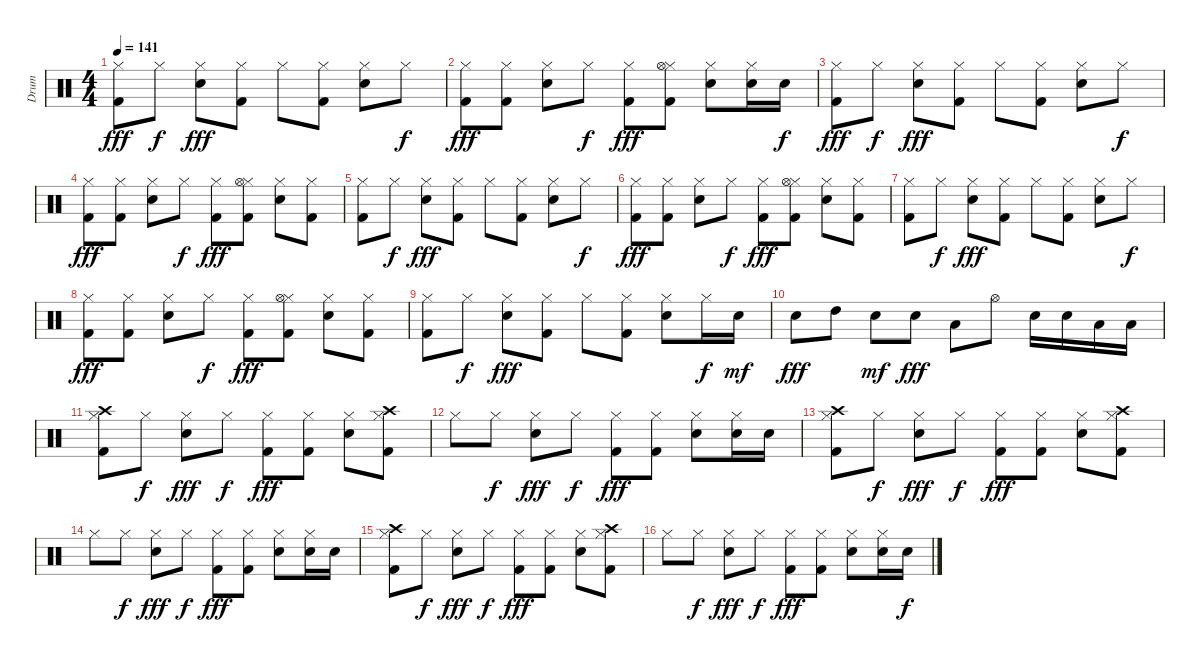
\track ("Drum" "Drum") {instrument percussion}
\staff {score}
\articulation defaults
\ts (4 4)
\tempo 141
\clef neutral
\ks c
("Hi-Hat (closed)" "Kick (hit) 2").8{dy fff} "Hi-Hat (closed)".8{dy f} ("Hi-Hat (closed)" "Snare (hit) 2").8{dy fff} ("Hi-Hat (closed)" "Kick (hit) 2").8 "Hi-Hat (closed)".8 ("Hi-Hat (closed)" "Kick (hit) 2").8 ("Hi-Hat (closed)" "Snare (hit) 2").8 "Hi-Hat (closed)".8{dy f} |
("Hi-Hat (closed)" "Kick (hit) 2").8{dy fff} ("Hi-Hat (closed)" "Kick (hit) 2").8 ("Hi-Hat (closed)" "Snare (hit) 2").8 "Hi-Hat (closed)".8{dy f} ("Hi-Hat (closed)" "Kick (hit) 2").8{dy fff} ("Hi-Hat (closed)" "Kick (hit) 2" "Hi-Hat (open)").8 ("Hi-Hat (closed)" "Snare (hit) 2").8 ("Hi-Hat (closed)" "Snare (hit) 2").16 "Snare (hit) 2".16{dy f} |
("Hi-Hat (closed)" "Kick (hit) 2").8{dy fff} "Hi-Hat (closed)".8{dy f} ("Hi-Hat (closed)" "Snare (hit) 2").8{dy fff} ("Hi-Hat (closed)" "Kick (hit) 2").8 "Hi-Hat (closed)".8 ("Hi-Hat (closed)" "Kick (hit) 2").8 ("Hi-Hat (closed)" "Snare (hit) 2").8 "Hi-Hat (closed)".8{dy f} |
("Hi-Hat (closed)" "Kick (hit) 2").8{dy fff} ("Hi-Hat (closed)" "Kick (hit) 2").8 ("Hi-Hat (closed)" "Snare (hit) 2").8 "Hi-Hat (closed)".8{dy f} ("Hi-Hat (closed)" "Kick (hit) 2").8{dy fff} ("Hi-Hat (closed)" "Kick (hit) 2" "Hi-Hat (open)").8 ("Hi-Hat (closed)" "Snare (hit) 2").8 ("Hi-Hat (closed)" "Kick (hit) 2").8 |
("Hi-Hat (closed)" "Kick (hit) 2").8 "Hi-Hat (closed)".8{dy f} ("Hi-Hat (closed)" "Snare (hit) 2").8{dy fff} ("Hi-Hat (closed)" "Kick (hit) 2").8 "Hi-Hat (closed)".8 ("Hi-Hat (closed)" "Kick (hit) 2").8 ("Hi-Hat (closed)" "Snare (hit) 2").8 "Hi-Hat (closed)".8{dy f} |
("Hi-Hat (closed)" "Kick (hit) 2").8{dy fff} ("Hi-Hat (closed)" "Kick (hit) 2").8 ("Hi-Hat (closed)" "Snare (hit) 2").8 "Hi-Hat (closed)".8{dy f} ("Hi-Hat (closed)" "Kick (hit) 2").8{dy fff} ("Hi-Hat (closed)" "Kick (hit) 2" "Hi-Hat (open)").8 ("Hi-Hat (closed)" "Snare (hit) 2").8 ("Hi-Hat (closed)" "Kick (hit) 2").8 |
("Hi-Hat (closed)" "Kick (hit) 2").8 "Hi-Hat (closed)".8{dy f} ("Hi-Hat (closed)" "Snare (hit) 2").8{dy fff} ("Hi-Hat (closed)" "Kick (hit) 2").8 "Hi-Hat (closed)".8 ("Hi-Hat (closed)" "Kick (hit) 2").8 ("Hi-Hat (closed)" "Snare (hit) 2").8 "Hi-Hat (closed)".8{dy f} |
("Hi-Hat (closed)" "Kick (hit) 2").8{dy fff} ("Hi-Hat (closed)" "Kick (hit) 2").8 ("Hi-Hat (closed)" "Snare (hit) 2").8 "Hi-Hat (closed)".8{dy f} ("Hi-Hat (closed)" "Kick (hit) 2").8{dy fff} ("Hi-Hat (closed)" "Kick (hit) 2" "Hi-Hat (open)").8 ("Hi-Hat (closed)" "Snare (hit) 2").8 ("Hi-Hat (closed)" "Kick (hit) 2").8 |
("Hi-Hat (closed)" "Kick (hit) 2").8 "Hi-Hat (closed)".8{dy f} ("Hi-Hat (closed)" "Snare (hit) 2").8{dy fff} ("Hi-Hat (closed)" "Kick (hit) 2").8 "Hi-Hat (closed)".8 ("Hi-Hat (closed)" "Kick (hit) 2").8 ("Hi-Hat (closed)" "Snare (hit) 2").8 "Hi-Hat (closed)".16{dy f} "Snare (hit) 2".16{dy mf} |
"Snare (hit) 2".8{dy fff} "High Tom (hit)".8 "Snare (hit) 2".8{dy mf} "Snare (hit) 2".8{dy fff} "Low Tom (hit)".8 "Hi-Hat (open)".8 "Snare (hit) 2".16 "Snare (hit) 2".16 "Low Tom (hit)".16 "Low Floor Tom (hit)".16 |
("Hi-Hat (closed)" "Kick (hit) 2" "Crash high (hit)").8 "Hi-Hat (closed)".8{dy f} ("Hi-Hat (closed)" "Snare (hit) 2").8{dy fff} "Hi-Hat (closed)".8{dy f} ("Hi-Hat (closed)" "Kick (hit) 2").8{dy fff} ("Hi-Hat (closed)" "Kick (hit) 2").8 ("Hi-Hat (closed)" "Snare (hit) 2").8 ("Hi-Hat (closed)" "Kick (hit) 2" "Crash high (hit)").8 |
"Hi-Hat (closed)".8 "Hi-Hat (closed)".8{dy f} ("Hi-Hat (closed)" "Snare (hit) 2").8{dy fff} "Hi-Hat (closed)".8{dy f} ("Hi-Hat (closed)" "Kick (hit) 2").8{dy fff} ("Hi-Hat (closed)" "Kick (hit) 2").8 ("Hi-Hat (closed)" "Snare (hit) 2").8 ("Hi-Hat (closed)" "Snare (hit) 2").16 "Snare (hit) 2".16 |
("Kick (hit) 2" "Hi-Hat (closed)" "Crash high (hit)").8 "Hi-Hat (closed)".8{dy f} ("Snare (hit) 2" "Hi-Hat (closed)").8{dy fff} "Hi-Hat (closed)".8{dy f} ("Kick (hit) 2" "Hi-Hat (closed)").8{dy fff} ("Kick (hit) 2" "Hi-Hat (closed)").8 ("Snare (hit) 2" "Hi-Hat (closed)").8 ("Kick (hit) 2" "Hi-Hat (closed)" "Crash high (hit)").8 |
"Hi-Hat (closed)".8 "Hi-Hat (closed)".8{dy f} ("Hi-Hat (closed)" "Snare (hit) 2").8{dy fff} "Hi-Hat (closed)".8{dy f} ("Hi-Hat (closed)" "Kick (hit) 2").8{dy fff} ("Hi-Hat (closed)" "Kick (hit) 2").8 ("Hi-Hat (closed)" "Snare (hit) 2").8 ("Hi-Hat (closed)" "Snare (hit) 2").16 "Snare (hit) 2".16 |
("Hi-Hat (closed)" "Kick (hit) 2" "Crash high (hit)").8 "Hi-Hat (closed)".8{dy f} ("Hi-Hat (closed)" "Snare (hit) 2").8{dy fff} "Hi-Hat (closed)".8{dy f} ("Kick (hit) 2" "Hi-Hat (closed)").8{dy fff} ("Kick (hit) 2" "Hi-Hat (closed)").8 ("Snare (hit) 2" "Hi-Hat (closed)").8 ("Kick (hit) 2" "Hi-Hat (closed)" "Crash high (hit)").8 |
"Hi-Hat (closed)".8 "Hi-Hat (closed)".8{dy f} ("Hi-Hat (closed)" "Snare (hit) 2").8{dy fff} "Hi-Hat (closed)".8{dy f} ("Hi-Hat (closed)" "Kick (hit) 2").8{dy fff} ("Hi-Hat (closed)" "Kick (hit) 2").8 ("Hi-Hat (closed)" "Snare (hit) 2").8 ("Hi-Hat (closed)" "Snare (hit) 2").16 "Snare (hit) 2".16{dy f}
